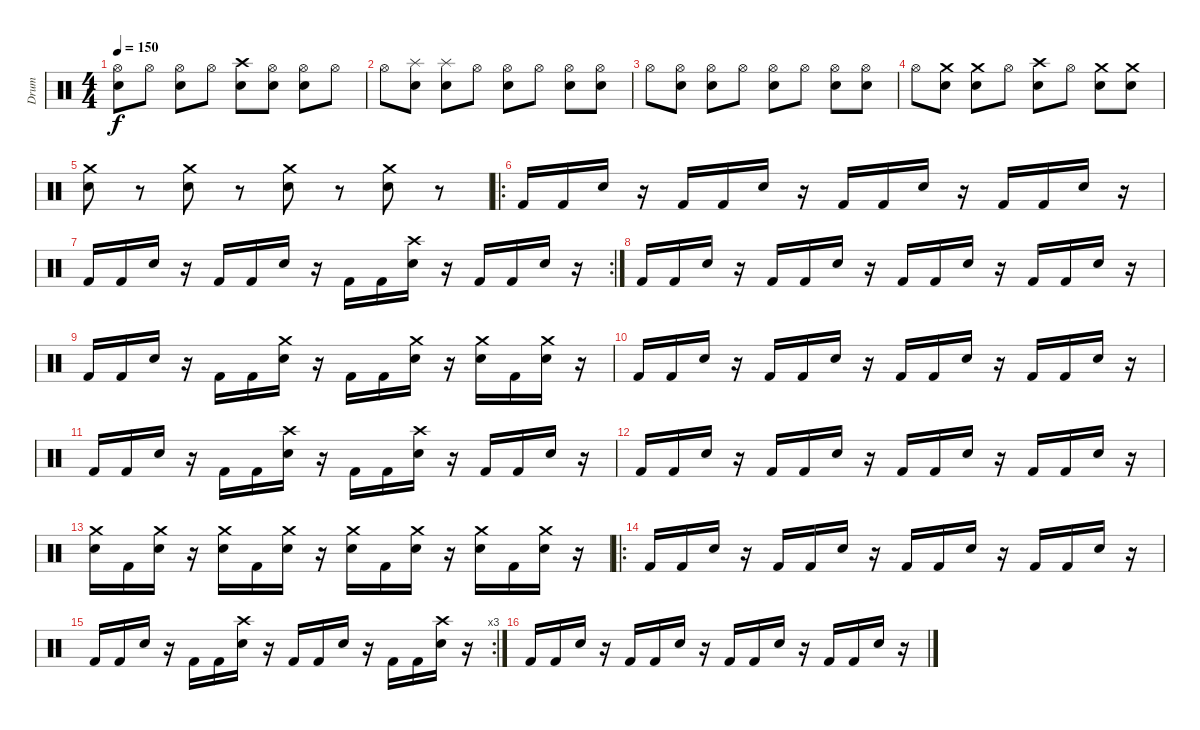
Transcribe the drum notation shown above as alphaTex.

\track ("Drum" "Drum") {instrument percussion}
\staff {score}
\articulation defaults
\ts (4 4)
\tempo 150
\clef neutral
\ks c
("Hi-Hat (open)" "Electric Snare (hit)").8{dy f} "Hi-Hat (open)".8 ("Hi-Hat (open)" "Electric Snare (hit)").8 "Hi-Hat (open)".8 ("Crash high (hit)" "Electric Snare (hit)").8 ("Hi-Hat (open)" "Electric Snare (hit)").8 ("Hi-Hat (open)" "Electric Snare (hit)").8 "Hi-Hat (open)".8 |
"Hi-Hat (open)".8 ("Splash (hit)" "Electric Snare (hit)").8 ("Splash (hit)" "Electric Snare (hit)").8 "Hi-Hat (open)".8 ("Hi-Hat (open)" "Electric Snare (hit)").8 "Hi-Hat (open)".8 ("Hi-Hat (open)" "Electric Snare (hit)").8 ("Hi-Hat (open)" "Electric Snare (hit)").8 |
"Hi-Hat (open)".8 ("Hi-Hat (open)" "Electric Snare (hit)").8 ("Hi-Hat (open)" "Electric Snare (hit)").8 "Hi-Hat (open)".8 ("Hi-Hat (open)" "Electric Snare (hit)").8 "Hi-Hat (open)".8 ("Hi-Hat (open)" "Electric Snare (hit)").8 ("Hi-Hat (open)" "Electric Snare (hit)").8 |
"Hi-Hat (open)".8 ("Crash medium (hit)" "Electric Snare (hit)").8 ("Crash medium (hit)" "Electric Snare (hit)").8 "Hi-Hat (open)".8 ("Crash high (hit)" "Electric Snare (hit)").8 "Hi-Hat (open)".8 ("Crash medium (hit)" "Electric Snare (hit)").8 ("Crash medium (hit)" "Electric Snare (hit)").8 |
("Crash medium (hit)" "Electric Snare (hit)").8 r.8 ("Crash medium (hit)" "Electric Snare (hit)").8 r.8 ("Crash medium (hit)" "Electric Snare (hit)").8 r.8 ("Crash medium (hit)" "Electric Snare (hit)").8 r.8 |
\ro "Kick (hit) 2".16 "Kick (hit) 2".16 "Snare (hit) 2".16
r.16 "Kick (hit) 2".16 "Kick (hit) 2".16 "Snare (hit) 2".16 r.16 "Kick (hit) 2".16 "Kick (hit) 2".16 "Snare (hit) 2".16 r.16 "Kick (hit) 2".16 "Kick (hit) 2".16 "Snare (hit) 2".16 r.16 |
\rc 2 "Kick (hit) 2".16 "Kick (hit) 2".16 "Snare (hit) 2".16
r.16 "Kick (hit) 2".16 "Kick (hit) 2".16 "Snare (hit) 2".16 r.16 "Kick (hit) 2".16 "Kick (hit) 2".16 ("Electric Snare (hit)" "Crash high (hit)").16 r.16 "Kick (hit) 2".16 "Kick (hit) 2".16 "Snare (hit) 2".16 r.16 |
"Kick (hit) 2".16 "Kick (hit) 2".16 "Snare (hit) 2".16 r.16 "Kick (hit) 2".16 "Kick (hit) 2".16 "Snare (hit) 2".16 r.16 "Kick (hit) 2".16 "Kick (hit) 2".16 "Snare (hit) 2".16 r.16 "Kick (hit) 2".16 "Kick (hit) 2".16 "Snare (hit) 2".16 r.16 |
"Kick (hit) 2".16 "Kick (hit) 2".16 "Snare (hit) 2".16 r.16 "Kick (hit) 2".16 "Kick (hit) 2".16 ("Electric Snare (hit)" "Crash medium (hit)").16 r.16 "Kick (hit) 2".16 "Kick (hit) 2".16 ("Electric Snare (hit)" "Crash medium (hit)").16 r.16 ("Electric Snare (hit)" "Crash medium (hit)").16 "Kick (hit) 2".16 ("Electric Snare (hit)" "Crash medium (hit)").16 r.16 |
"Kick (hit) 2".16 "Kick (hit) 2".16 "Snare (hit) 2".16 r.16 "Kick (hit) 2".16 "Kick (hit) 2".16 "Snare (hit) 2".16 r.16 "Kick (hit) 2".16 "Kick (hit) 2".16 "Snare (hit) 2".16 r.16 "Kick (hit) 2".16 "Kick (hit) 2".16 "Snare (hit) 2".16 r.16 |
"Kick (hit) 2".16 "Kick (hit) 2".16 "Snare (hit) 2".16 r.16 "Kick (hit) 2".16 "Kick (hit) 2".16 ("Electric Snare (hit)" "Crash high (hit)").16 r.16 "Kick (hit) 2".16 "Kick (hit) 2".16 ("Electric Snare (hit)" "Crash high (hit)").16 r.16 "Kick (hit) 2".16 "Kick (hit) 2".16 "Snare (hit) 2".16 r.16 |
"Kick (hit) 2".16 "Kick (hit) 2".16 "Snare (hit) 2".16 r.16 "Kick (hit) 2".16 "Kick (hit) 2".16 "Snare (hit) 2".16 r.16 "Kick (hit) 2".16 "Kick (hit) 2".16 "Snare (hit) 2".16 r.16 "Kick (hit) 2".16 "Kick (hit) 2".16 "Snare (hit) 2".16 r.16 |
("Electric Snare (hit)" "Crash medium (hit)").16 "Kick (hit) 2".16 ("Electric Snare (hit)" "Crash medium (hit)").16 r.16 ("Electric Snare (hit)" "Crash medium (hit)").16 "Kick (hit) 2".16 ("Electric Snare (hit)" "Crash medium (hit)").16 r.16 ("Electric Snare (hit)" "Crash medium (hit)").16 "Kick (hit) 2".16 ("Electric Snare (hit)" "Crash medium (hit)").16 r.16 ("Electric Snare (hit)" "Crash medium (hit)").16 "Kick (hit) 2".16 ("Electric Snare (hit)" "Crash medium (hit)").16 r.16 |
\ro "Kick (hit) 2".16 "Kick (hit) 2".16 "Snare (hit) 2".16
r.16 "Kick (hit) 2".16 "Kick (hit) 2".16 "Snare (hit) 2".16 r.16 "Kick (hit) 2".16 "Kick (hit) 2".16 "Snare (hit) 2".16 r.16 "Kick (hit) 2".16 "Kick (hit) 2".16 "Snare (hit) 2".16 r.16 |
\rc 3 "Kick (hit) 2".16 "Kick (hit) 2".16 "Snare (hit) 2".16
r.16 "Kick (hit) 2".16 "Kick (hit) 2".16 ("Electric Snare (hit)" "Crash high (hit)").16 r.16 "Kick (hit) 2".16 "Kick (hit) 2".16 "Snare (hit) 2".16 r.16 "Kick (hit) 2".16 "Kick (hit) 2".16 ("Electric Snare (hit)" "Crash high (hit)").16 r.16 |
"Kick (hit) 2".16 "Kick (hit) 2".16 "Snare (hit) 2".16 r.16 "Kick (hit) 2".16 "Kick (hit) 2".16 "Snare (hit) 2".16 r.16 "Kick (hit) 2".16 "Kick (hit) 2".16 "Snare (hit) 2".16 r.16 "Kick (hit) 2".16 "Kick (hit) 2".16 "Snare (hit) 2".16 r.16
